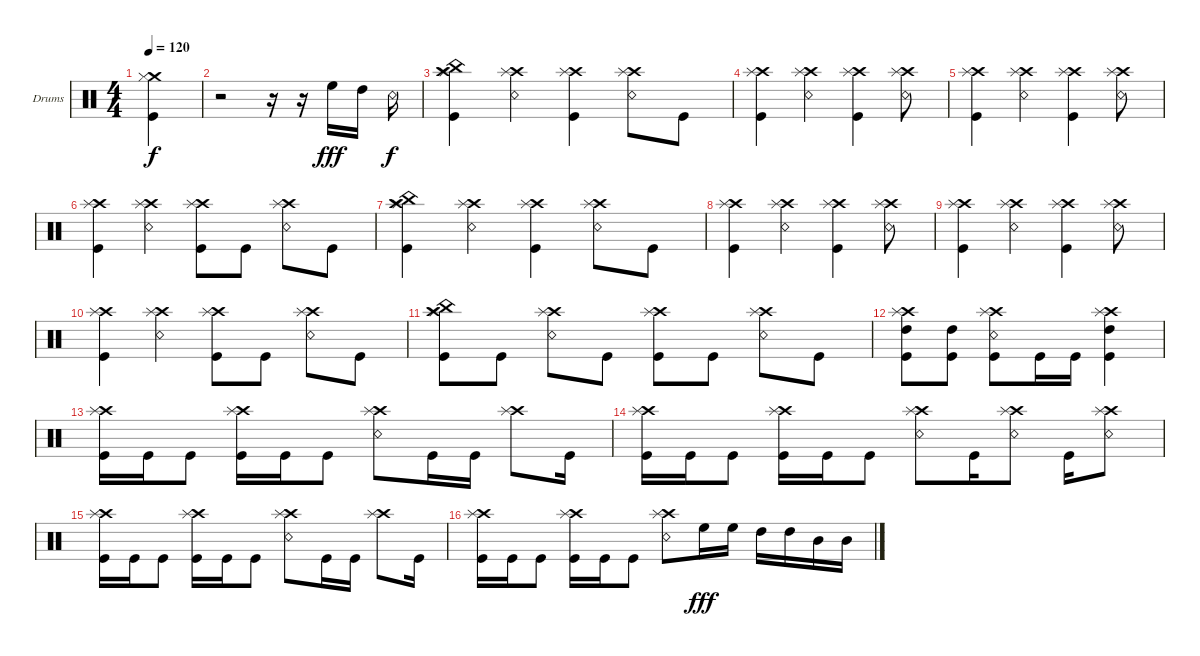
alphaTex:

\defaultSystemsLayout 4
\bracketExtendMode groupsimilarinstruments
\firstSystemTrackNameOrientation horizontal
\otherSystemsTrackNameOrientation horizontal
\track ("Drumkit" "Drums") {instrument percussion}
\staff {score}
\articulation defaults
\ts (4 4)
\tempo 120
\clef neutral
\scale
0.333333
\ks c
("Kick (hit)" "Crash medium (hit)" "Hi-Hat (closed)").4{dy f} |
\scale
0.333333 r.2 r.16 r.16 "High Floor Tom (hit)".16{dy fff} "High Tom (hit)".16 "Snare (rim shot)".16{dy f} |
\scale
0.333333 ("Kick (hit)" "Crash high (hit)" "Splash (hit)" "China (hit)").4 ("Snare (rim shot)" "Crash high (hit)" "Splash (hit)").4 ("Kick (hit)" "Crash high (hit)" "Splash (hit)").4 ("Snare (rim shot)" "Crash high (hit)" "Splash (hit)").8 "Kick (hit)".8 |
\scale
0.333333 ("Kick (hit)" "Crash high (hit)" "Splash (hit)").4 ("Snare (rim shot)" "Crash high (hit)" "Splash (hit)").4 ("Kick (hit)" "Crash high (hit)" "Splash (hit)").4 ("Snare (rim shot)" "Crash high (hit)" "Splash (hit)").8 |
\scale
0.333333 ("Kick (hit)" "Crash high (hit)" "Splash (hit)").4 ("Snare (rim shot)" "Crash high (hit)" "Splash (hit)").4 ("Kick (hit)" "Crash high (hit)" "Splash (hit)").4 ("Snare (rim shot)" "Crash high (hit)" "Splash (hit)").8 |
\scale
0.333333 ("Kick (hit)" "Crash high (hit)" "Splash (hit)").4 ("Snare (rim shot)" "Crash high (hit)" "Splash (hit)").4 ("Kick (hit)" "Crash high (hit)" "Splash (hit)").8 "Kick (hit)".8 ("Snare (rim shot)" "Crash high (hit)" "Splash (hit)").8 "Kick (hit)".8 |
\scale
0.333333 ("Kick (hit)" "Crash high (hit)" "Splash (hit)" "China (hit)").4 ("Snare (rim shot)" "Crash high (hit)" "Splash (hit)").4 ("Kick (hit)" "Crash high (hit)" "Splash (hit)").4 ("Snare (rim shot)" "Crash high (hit)" "Splash (hit)").8 "Kick (hit)".8 |
\scale
0.333333 ("Kick (hit)" "Crash high (hit)" "Splash (hit)").4 ("Snare (rim shot)" "Crash high (hit)" "Splash (hit)").4 ("Kick (hit)" "Crash high (hit)" "Splash (hit)").4 ("Snare (rim shot)" "Crash high (hit)" "Splash (hit)").8 |
\scale
0.333333 ("Kick (hit)" "Crash high (hit)" "Splash (hit)").4 ("Snare (rim shot)" "Crash high (hit)" "Splash (hit)").4 ("Kick (hit)" "Crash high (hit)" "Splash (hit)").4 ("Snare (rim shot)" "Crash high (hit)" "Splash (hit)").8 |
\scale
0.333333 ("Kick (hit)" "Crash high (hit)" "Splash (hit)").4 ("Snare (rim shot)" "Crash high (hit)" "Splash (hit)").4 ("Kick (hit)" "Crash high (hit)" "Splash (hit)").8 "Kick (hit)".8 ("Snare (rim shot)" "Crash high (hit)" "Splash (hit)").8 "Kick (hit)".8 |
\scale
0.333333 ("Kick (hit)" "Crash high (hit)" "Splash (hit)" "China (hit)").8 "Kick (hit)".8 ("Snare (rim shot)" "Crash high (hit)" "Splash (hit)").8 "Kick (hit)".8 ("Kick (hit)" "Crash high (hit)" "Splash (hit)").8 "Kick (hit)".8 ("Snare (rim shot)" "Crash high (hit)" "Splash (hit)").8 "Kick (hit)".8 |
\scale
0.333333 ("Kick (hit)" "Crash high (hit)" "Splash (hit)" "High Tom (hit)").8 ("Kick (hit)" "High Tom (hit)").8 ("Snare (rim shot)" "Crash high (hit)" "Splash (hit)" "Kick (hit)").8 "Kick (hit)".16 "Kick (hit)".16 ("Kick (hit)" "Crash high (hit)" "Splash (hit)" "High Tom (hit)").4 |
\scale
0.333333 ("Kick (hit)" "Crash high (hit)" "Splash (hit)").16 "Kick (hit)".16 "Kick (hit)".8 ("Kick (hit)" "Crash high (hit)" "Splash (hit)").16 "Kick (hit)".16 "Kick (hit)".8 ("Snare (rim shot)" "Crash high (hit)" "Splash (hit)").8 "Kick (hit)".16 "Kick (hit)".16 ("Crash high (hit)" "Splash (hit)").8 "Kick (hit)".16 |
\scale
0.333333 ("Kick (hit)" "Crash high (hit)" "Splash (hit)").16 "Kick (hit)".16 "Kick (hit)".8 ("Kick (hit)" "Crash high (hit)" "Splash (hit)").16 "Kick (hit)".16 "Kick (hit)".8 ("Snare (rim shot)" "Crash high (hit)" "Splash (hit)").8 "Kick (hit)".16 ("Snare (rim shot)" "Crash high (hit)" "Splash (hit)").8 "Kick (hit)".16 ("Snare (rim shot)" "Crash high (hit)" "Splash (hit)").8 |
\scale
0.333333 ("Kick (hit)" "Crash high (hit)" "Splash (hit)").16 "Kick (hit)".16 "Kick (hit)".8 ("Kick (hit)" "Crash high (hit)" "Splash (hit)").16 "Kick (hit)".16 "Kick (hit)".8 ("Snare (rim shot)" "Crash high (hit)" "Splash (hit)").8 "Kick (hit)".16 "Kick (hit)".16 ("Crash high (hit)" "Splash (hit)").8 "Kick (hit)".16 |
\scale
0.333333 ("Kick (hit)" "Crash high (hit)" "Splash (hit)").16 "Kick (hit)".16 "Kick (hit)".8 ("Kick (hit)" "Crash high (hit)" "Splash (hit)").16 "Kick (hit)".16 "Kick (hit)".8 ("Snare (rim shot)" "Crash high (hit)" "Splash (hit)").8 "High Floor Tom (hit)".16{dy fff} "High Floor Tom (hit)".16 "High Tom (hit)".16 "High Tom (hit)".16 "Mid Tom (hit)".16 "Mid Tom (hit)".16
